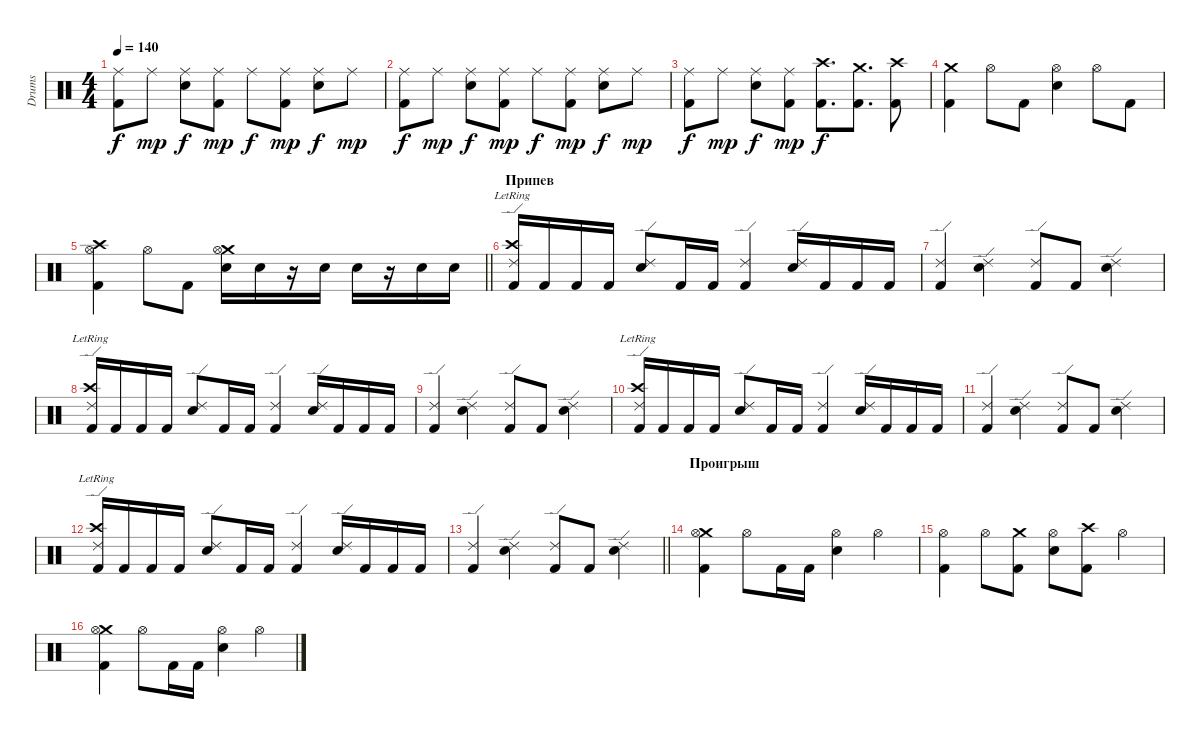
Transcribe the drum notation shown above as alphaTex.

\track ("Drums" "Drums") {instrument percussion}
\staff {score}
\articulation defaults
\ts (4 4)
\tempo 140
\clef neutral
\ks c
("Kick (hit) 2" "Ride (middle)").8{dy f} "Ride (middle)".8{dy mp} ("Electric Snare (hit)" "Ride (middle)").8{dy f} ("Kick (hit) 2" "Ride (middle)").8{dy mp} "Ride (middle)".8{dy f} ("Kick (hit) 2" "Ride (middle)").8{dy mp} ("Electric Snare (hit)" "Ride (middle)").8{dy f} "Ride (middle)".8{dy mp} |
("Kick (hit) 2" "Ride (middle)").8{dy f} "Ride (middle)".8{dy mp} ("Electric Snare (hit)" "Ride (middle)").8{dy f} ("Kick (hit) 2" "Ride (middle)").8{dy mp} "Ride (middle)".8{dy f} ("Kick (hit) 2" "Ride (middle)").8{dy mp} ("Electric Snare (hit)" "Ride (middle)").8{dy f} "Ride (middle)".8{dy mp} |
("Kick (hit) 2" "Ride (middle)").8{dy f} "Ride (middle)".8{dy mp} ("Electric Snare (hit)" "Ride (middle)").8{dy f} ("Kick (hit) 2" "Ride (middle)").8{dy mp} ("Crash high (hit)" "Kick (hit) 2").8{d dy f} ("Crash medium (hit)" "Kick (hit) 2").8{d} ("Crash high (hit)" "Kick (hit) 2").8 |
("Crash medium (hit)" "Kick (hit) 2").4 "Hi-Hat (open)".8 "Kick (hit) 2".8 ("Electric Snare (hit)" "Hi-Hat (open)").4 "Hi-Hat (open)".8 "Kick (hit) 2".8 |
\barLineRight lightlight
("Crash high (hit)" "Kick (hit) 2" "Hi-Hat (open)").4 "Hi-Hat (open)".8 "Kick (hit) 2".8 ("Crash medium (hit)" "Electric Snare (hit)" "Hi-Hat (open)").16 "Electric Snare (hit)".16 r.16 "Electric Snare (hit)".16 "Electric Snare (hit)".16 r.16 "Electric Snare (hit)".16 "Electric Snare (hit)".16 |
\section ("" "Припев")
("Crash high (hit)"{lr} "Ride (edge) 2"{lr} "Kick (hit) 2").16 "Kick (hit) 2".16 "Kick (hit) 2".16 "Kick (hit) 2".16 ("Ride (edge) 2" "Electric Snare (hit)").8 "Kick (hit) 2".16 "Kick (hit) 2".16 ("Ride (edge) 2" "Kick (hit) 2").4 ("Ride (edge) 2" "Electric Snare (hit)").16 "Kick (hit) 2".16 "Kick (hit) 2".16 "Kick (hit) 2".16 |
("Ride (edge) 2" "Kick (hit) 2").4 ("Ride (edge) 2" "Electric Snare (hit)").4 ("Ride (edge) 2" "Kick (hit) 2").8 "Kick (hit) 2".8 ("Ride (edge) 2" "Electric Snare (hit)").4 |
("Crash high (hit)"{lr} "Ride (edge) 2"{lr} "Kick (hit) 2").16 "Kick (hit) 2".16 "Kick (hit) 2".16 "Kick (hit) 2".16 ("Ride (edge) 2" "Electric Snare (hit)").8 "Kick (hit) 2".16 "Kick (hit) 2".16 ("Ride (edge) 2" "Kick (hit) 2").4 ("Ride (edge) 2" "Electric Snare (hit)").16 "Kick (hit) 2".16 "Kick (hit) 2".16 "Kick (hit) 2".16 |
("Ride (edge) 2" "Kick (hit) 2").4 ("Ride (edge) 2" "Electric Snare (hit)").4 ("Ride (edge) 2" "Kick (hit) 2").8 "Kick (hit) 2".8 ("Ride (edge) 2" "Electric Snare (hit)").4 |
("Crash high (hit)"{lr} "Ride (edge) 2"{lr} "Kick (hit) 2").16 "Kick (hit) 2".16 "Kick (hit) 2".16 "Kick (hit) 2".16 ("Ride (edge) 2" "Electric Snare (hit)").8 "Kick (hit) 2".16 "Kick (hit) 2".16 ("Ride (edge) 2" "Kick (hit) 2").4 ("Ride (edge) 2" "Electric Snare (hit)").16 "Kick (hit) 2".16 "Kick (hit) 2".16 "Kick (hit) 2".16 |
("Ride (edge) 2" "Kick (hit) 2").4 ("Ride (edge) 2" "Electric Snare (hit)").4 ("Ride (edge) 2" "Kick (hit) 2").8 "Kick (hit) 2".8 ("Ride (edge) 2" "Electric Snare (hit)").4 |
("Crash high (hit)"{lr} "Ride (edge) 2"{lr} "Kick (hit) 2").16 "Kick (hit) 2".16 "Kick (hit) 2".16 "Kick (hit) 2".16 ("Ride (edge) 2" "Electric Snare (hit)").8 "Kick (hit) 2".16 "Kick (hit) 2".16 ("Ride (edge) 2" "Kick (hit) 2").4 ("Ride (edge) 2" "Electric Snare (hit)").16 "Kick (hit) 2".16 "Kick (hit) 2".16 "Kick (hit) 2".16 |
\barLineRight lightlight
("Ride (edge) 2" "Kick (hit) 2").4 ("Ride (edge) 2" "Electric Snare (hit)").4 ("Ride (edge) 2" "Kick (hit) 2").8 "Kick (hit) 2".8 ("Ride (edge) 2" "Electric Snare (hit)").4 |
\section ("" "Проигрыш")
("Crash medium (hit)" "Kick (hit) 2" "Hi-Hat (open)").4 "Hi-Hat (open)".8 "Kick (hit) 2".16 "Kick (hit) 2".16 ("Electric Snare (hit)" "Hi-Hat (open)").4 "Hi-Hat (open)".4 |
("Kick (hit) 2" "Hi-Hat (open)").4 "Hi-Hat (open)".8 ("Crash medium (hit)" "Kick (hit) 2").8 ("Electric Snare (hit)" "Hi-Hat (open)").8 ("Crash high (hit)" "Kick (hit) 2").8 "Hi-Hat (open)".4 |
("Crash medium (hit)" "Kick (hit) 2" "Hi-Hat (open)").4 "Hi-Hat (open)".8 "Kick (hit) 2".16 "Kick (hit) 2".16 ("Electric Snare (hit)" "Hi-Hat (open)").4 "Hi-Hat (open)".4
